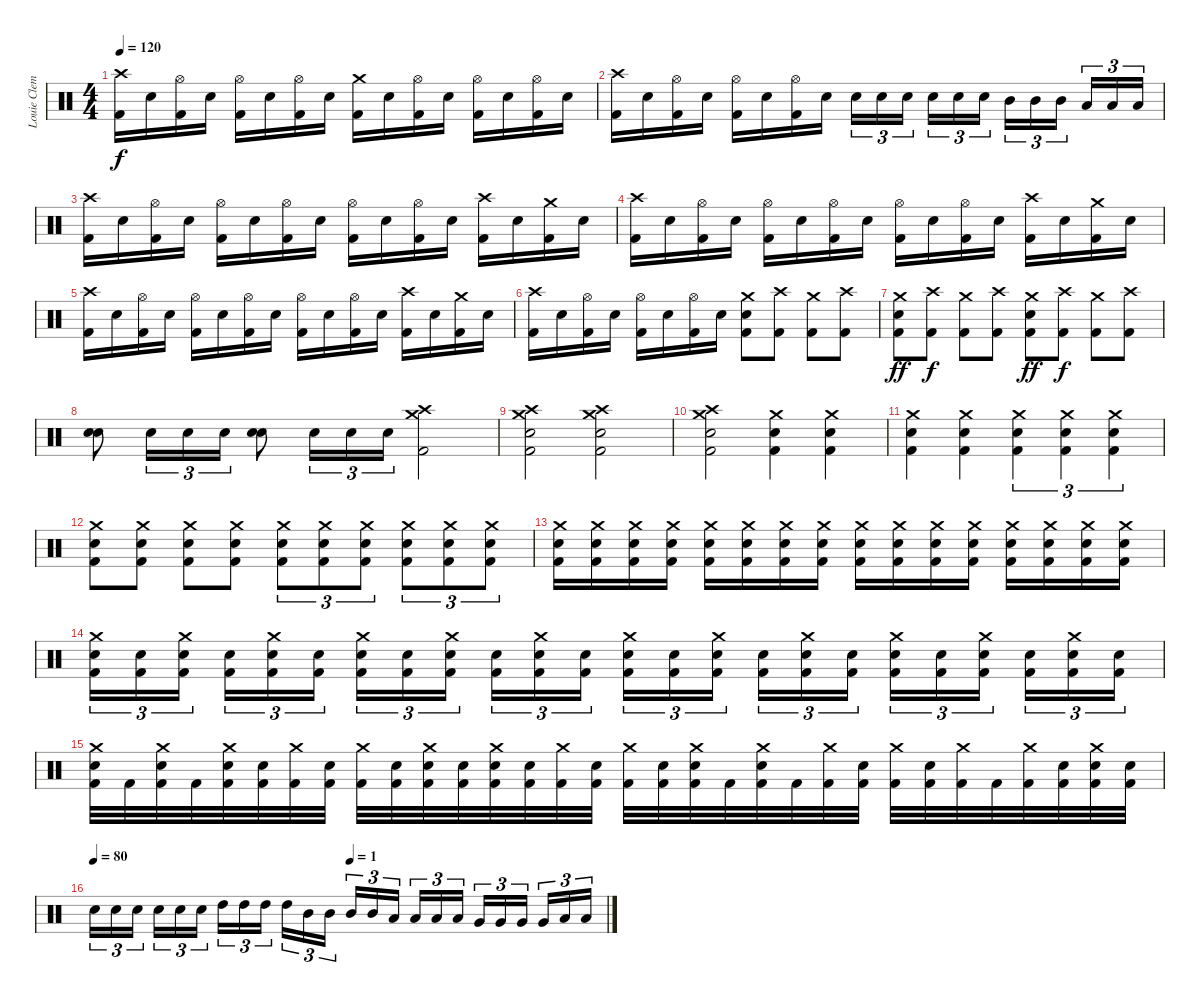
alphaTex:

\track ("Louie Clemente" "Louie Clem") {instrument percussion}
\staff {score}
\articulation defaults
\ts (4 4)
\tempo 120
\clef neutral
\ks c
("Crash high (hit)" "Kick (hit) 2").16{dy f} "Snare (hit) 2".16 ("Hi-Hat (open)" "Kick (hit) 2").16 "Snare (hit) 2".16 ("Hi-Hat (open)" "Kick (hit) 2").16 "Snare (hit) 2".16 ("Hi-Hat (open)" "Kick (hit) 2").16 "Snare (hit) 2".16 ("Crash medium (hit)" "Kick (hit) 2").16 "Snare (hit) 2".16 ("Hi-Hat (open)" "Kick (hit) 2").16 "Snare (hit) 2".16 ("Hi-Hat (open)" "Kick (hit) 2").16 "Snare (hit) 2".16 ("Hi-Hat (open)" "Kick (hit) 2").16 "Snare (hit) 2".16 |
("Crash high (hit)" "Kick (hit) 2").16 "Snare (hit) 2".16 ("Hi-Hat (open)" "Kick (hit) 2").16 "Snare (hit) 2".16 ("Hi-Hat (open)" "Kick (hit) 2").16 "Snare (hit) 2".16 ("Hi-Hat (open)" "Kick (hit) 2").16 "Snare (hit) 2".16 "Snare (hit) 2".16{tu (3 2)} "Snare (hit) 2".16{tu (3 2)} "Snare (hit) 2".16{tu (3 2)} "Snare (hit) 2".16{tu (3 2)} "Snare (hit) 2".16{tu (3 2)} "Snare (hit) 2".16{tu (3 2)} "Mid Tom (hit)".16{tu (3 2)} "Mid Tom (hit)".16{tu (3 2)} "Mid Tom (hit)".16{tu (3 2)} "Low Tom (hit)".16{tu (3 2)} "Low Tom (hit)".16{tu (3 2)} "Low Tom (hit)".16{tu (3 2)} |
("Crash high (hit)" "Kick (hit) 2").16 "Snare (hit) 2".16 ("Hi-Hat (open)" "Kick (hit) 2").16 "Snare (hit) 2".16 ("Hi-Hat (open)" "Kick (hit) 2").16 "Snare (hit) 2".16 ("Hi-Hat (open)" "Kick (hit) 2").16 "Snare (hit) 2".16 ("Hi-Hat (open)" "Kick (hit) 2").16 "Snare (hit) 2".16 ("Hi-Hat (open)" "Kick (hit) 2").16 "Snare (hit) 2".16 ("Crash high (hit)" "Kick (hit) 2").16 "Snare (hit) 2".16 ("Crash medium (hit)" "Kick (hit) 2").16 "Snare (hit) 2".16 |
("Crash high (hit)" "Kick (hit) 2").16 "Snare (hit) 2".16 ("Hi-Hat (open)" "Kick (hit) 2").16 "Snare (hit) 2".16 ("Hi-Hat (open)" "Kick (hit) 2").16 "Snare (hit) 2".16 ("Hi-Hat (open)" "Kick (hit) 2").16 "Snare (hit) 2".16 ("Hi-Hat (open)" "Kick (hit) 2").16 "Snare (hit) 2".16 ("Hi-Hat (open)" "Kick (hit) 2").16 "Snare (hit) 2".16 ("Crash high (hit)" "Kick (hit) 2").16 "Snare (hit) 2".16 ("Crash medium (hit)" "Kick (hit) 2").16 "Snare (hit) 2".16 |
("Crash high (hit)" "Kick (hit) 2").16 "Snare (hit) 2".16 ("Hi-Hat (open)" "Kick (hit) 2").16 "Snare (hit) 2".16 ("Hi-Hat (open)" "Kick (hit) 2").16 "Snare (hit) 2".16 ("Hi-Hat (open)" "Kick (hit) 2").16 "Snare (hit) 2".16 ("Hi-Hat (open)" "Kick (hit) 2").16 "Snare (hit) 2".16 ("Hi-Hat (open)" "Kick (hit) 2").16 "Snare (hit) 2".16 ("Crash high (hit)" "Kick (hit) 2").16 "Snare (hit) 2".16 ("Crash medium (hit)" "Kick (hit) 2").16 "Snare (hit) 2".16 |
("Crash high (hit)" "Kick (hit) 2").16 "Snare (hit) 2".16 ("Hi-Hat (open)" "Kick (hit) 2").16 "Snare (hit) 2".16 ("Hi-Hat (open)" "Kick (hit) 2").16 "Snare (hit) 2".16 ("Hi-Hat (open)" "Kick (hit) 2").16 "Snare (hit) 2".16 ("Snare (hit) 2" "Crash medium (hit)" "Kick (hit) 2").8 ("Crash high (hit)" "Kick (hit) 2").8 ("Crash medium (hit)" "Kick (hit) 2").8 ("Crash high (hit)" "Kick (hit) 2").8 |
("Snare (hit) 2" "Crash medium (hit)" "Kick (hit) 2").8{dy ff} ("Crash high (hit)" "Kick (hit) 2").8{dy f} ("Crash medium (hit)" "Kick (hit) 2").8 ("Crash high (hit)" "Kick (hit) 2").8 ("Snare (hit) 2" "Crash medium (hit)" "Kick (hit) 2").8{dy ff} ("Crash high (hit)" "Kick (hit) 2").8{dy f} ("Crash medium (hit)" "Kick (hit) 2").8 ("Crash high (hit)" "Kick (hit) 2").8 |
("Snare (hit) 2" "Snare (hit) 2").8 "Snare (hit) 2".16{tu (3 2)} "Snare (hit) 2".16{tu (3 2)} "Snare (hit) 2".16{tu (3 2)} ("Snare (hit) 2" "Snare (hit) 2").8 "Snare (hit) 2".16{tu (3 2)} "Snare (hit) 2".16{tu (3 2)} "Snare (hit) 2".16{tu (3 2)} ("Crash medium (hit)" "Crash high (hit)" "Kick (hit) 2").2 |
("Crash high (hit)" "Crash medium (hit)" "Snare (hit) 2" "Kick (hit) 2").2 ("Crash high (hit)" "Crash medium (hit)" "Snare (hit) 2" "Kick (hit) 2").2 |
("Crash high (hit)" "Crash medium (hit)" "Snare (hit) 2" "Kick (hit) 2").2 ("Crash medium (hit)" "Snare (hit) 2" "Kick (hit) 2").4 ("Crash medium (hit)" "Snare (hit) 2" "Kick (hit) 2").4 |
("Crash medium (hit)" "Snare (hit) 2" "Kick (hit) 2").4 ("Crash medium (hit)" "Snare (hit) 2" "Kick (hit) 2").4 ("Crash medium (hit)" "Snare (hit) 2" "Kick (hit) 2").4{tu (3 2)} ("Crash medium (hit)" "Snare (hit) 2" "Kick (hit) 2").4{tu (3 2)} ("Crash medium (hit)" "Snare (hit) 2" "Kick (hit) 2").4{tu (3 2)} |
("Crash medium (hit)" "Snare (hit) 2" "Kick (hit) 2").8 ("Crash medium (hit)" "Snare (hit) 2" "Kick (hit) 2").8 ("Crash medium (hit)" "Snare (hit) 2" "Kick (hit) 2").8 ("Crash medium (hit)" "Snare (hit) 2" "Kick (hit) 2").8 ("Crash medium (hit)" "Snare (hit) 2" "Kick (hit) 2").8{tu (3 2)} ("Crash medium (hit)" "Snare (hit) 2" "Kick (hit) 2").8{tu (3 2)} ("Crash medium (hit)" "Snare (hit) 2" "Kick (hit) 2").8{tu (3 2)} ("Crash medium (hit)" "Snare (hit) 2" "Kick (hit) 2").8{tu (3 2)} ("Crash medium (hit)" "Snare (hit) 2" "Kick (hit) 2").8{tu (3 2)} ("Crash medium (hit)" "Snare (hit) 2" "Kick (hit) 2").8{tu (3 2)} |
("Crash medium (hit)" "Snare (hit) 2" "Kick (hit) 2").16 ("Crash medium (hit)" "Snare (hit) 2" "Kick (hit) 2").16 ("Crash medium (hit)" "Snare (hit) 2" "Kick (hit) 2").16 ("Crash medium (hit)" "Snare (hit) 2" "Kick (hit) 2").16 ("Crash medium (hit)" "Snare (hit) 2" "Kick (hit) 2").16 ("Crash medium (hit)" "Snare (hit) 2" "Kick (hit) 2").16 ("Crash medium (hit)" "Snare (hit) 2" "Kick (hit) 2").16 ("Crash medium (hit)" "Snare (hit) 2" "Kick (hit) 2").16 ("Crash medium (hit)" "Snare (hit) 2" "Kick (hit) 2").16 ("Crash medium (hit)" "Snare (hit) 2" "Kick (hit) 2").16 ("Crash medium (hit)" "Snare (hit) 2" "Kick (hit) 2").16 ("Crash medium (hit)" "Snare (hit) 2" "Kick (hit) 2").16 ("Crash medium (hit)" "Snare (hit) 2" "Kick (hit) 2").16 ("Crash medium (hit)" "Snare (hit) 2" "Kick (hit) 2").16 ("Crash medium (hit)" "Snare (hit) 2" "Kick (hit) 2").16 ("Crash medium (hit)" "Snare (hit) 2" "Kick (hit) 2").16 |
("Crash medium (hit)" "Snare (hit) 2" "Kick (hit) 2").16{tu (3 2)} ("Snare (hit) 2" "Kick (hit) 2").16{tu (3 2)} ("Crash medium (hit)" "Snare (hit) 2" "Kick (hit) 2").16{tu (3 2)} ("Snare (hit) 2" "Kick (hit) 2").16{tu (3 2)} ("Crash medium (hit)" "Snare (hit) 2" "Kick (hit) 2").16{tu (3 2)} ("Snare (hit) 2" "Kick (hit) 2").16{tu (3 2)} ("Crash medium (hit)" "Snare (hit) 2" "Kick (hit) 2").16{tu (3 2)} ("Snare (hit) 2" "Kick (hit) 2").16{tu (3 2)} ("Crash medium (hit)" "Snare (hit) 2" "Kick (hit) 2").16{tu (3 2)} ("Snare (hit) 2" "Kick (hit) 2").16{tu (3 2)} ("Crash medium (hit)" "Snare (hit) 2" "Kick (hit) 2").16{tu (3 2)} ("Snare (hit) 2" "Kick (hit) 2").16{tu (3 2)} ("Crash medium (hit)" "Snare (hit) 2" "Kick (hit) 2").16{tu (3 2)} ("Snare (hit) 2" "Kick (hit) 2").16{tu (3 2)} ("Crash medium (hit)" "Snare (hit) 2" "Kick (hit) 2").16{tu (3 2)} ("Snare (hit) 2" "Kick (hit) 2").16{tu (3 2)} ("Crash medium (hit)" "Snare (hit) 2" "Kick (hit) 2").16{tu (3 2)} ("Snare (hit) 2" "Kick (hit) 2").16{tu (3 2)} ("Crash medium (hit)" "Snare (hit) 2" "Kick (hit) 2").16{tu (3 2)} ("Snare (hit) 2" "Kick (hit) 2").16{tu (3 2)} ("Crash medium (hit)" "Snare (hit) 2" "Kick (hit) 2").16{tu (3 2)} ("Snare (hit) 2" "Kick (hit) 2").16{tu (3 2)} ("Crash medium (hit)" "Snare (hit) 2" "Kick (hit) 2").16{tu (3 2)} ("Snare (hit) 2" "Kick (hit) 2").16{tu (3 2)} |
("Crash medium (hit)" "Snare (hit) 2" "Kick (hit) 2").32 "Kick (hit) 2".32 ("Crash medium (hit)" "Snare (hit) 2" "Kick (hit) 2").32 "Kick (hit) 2".32 ("Crash medium (hit)" "Snare (hit) 2" "Kick (hit) 2").32 ("Snare (hit) 2" "Kick (hit) 2").32 ("Crash medium (hit)" "Kick (hit) 2").32 ("Snare (hit) 2" "Kick (hit) 2").32 ("Crash medium (hit)" "Kick (hit) 2").32 ("Snare (hit) 2" "Kick (hit) 2").32 ("Crash medium (hit)" "Snare (hit) 2" "Kick (hit) 2").32 ("Snare (hit) 2" "Kick (hit) 2").32 ("Crash medium (hit)" "Snare (hit) 2" "Kick (hit) 2").32 ("Snare (hit) 2" "Kick (hit) 2").32 ("Crash medium (hit)" "Kick (hit) 2").32 ("Snare (hit) 2" "Kick (hit) 2").32 ("Crash medium (hit)" "Kick (hit) 2").32 ("Snare (hit) 2" "Kick (hit) 2").32 ("Crash medium (hit)" "Snare (hit) 2" "Kick (hit) 2").32 "Kick (hit) 2".32 ("Crash medium (hit)" "Snare (hit) 2" "Kick (hit) 2").32 "Kick (hit) 2".32 ("Crash medium (hit)" "Kick (hit) 2").32 ("Snare (hit) 2" "Kick (hit) 2").32 ("Crash medium (hit)" "Kick (hit) 2").32 ("Snare (hit) 2" "Kick (hit) 2").32 ("Crash medium (hit)" "Kick (hit) 2").32 "Kick (hit) 2".32 ("Crash medium (hit)" "Kick (hit) 2").32 ("Snare (hit) 2" "Kick (hit) 2").32 ("Crash medium (hit)" "Snare (hit) 2" "Kick (hit) 2").32 ("Snare (hit) 2" "Kick (hit) 2").32 |
\tempo 80
\tempo (1 0.5)
"Snare (hit) 2".16{tu (3 2)} "Snare (hit) 2".16{tu (3 2)} "Snare (hit) 2".16{tu (3 2)} "Snare (hit) 2".16{tu (3 2)} "Snare (hit) 2".16{tu (3 2)} "Snare (hit) 2".16{tu (3 2)} "High Tom (hit)".16{tu (3 2)} "High Tom (hit)".16{tu (3 2)} "High Tom (hit)".16{tu (3 2)} "High Tom (hit)".16{tu (3 2)} "Mid Tom (hit)".16{tu (3 2)} "Mid Tom (hit)".16{tu (3 2)} "Mid Tom (hit)".16{tu (3 2)} "Mid Tom (hit)".16{tu (3 2)} "Low Tom (hit)".16{tu (3 2)} "Low Tom (hit)".16{tu (3 2)} "Low Tom (hit)".16{tu (3 2)} "Low Tom (hit)".16{tu (3 2)} "Very Low Tom (hit)".16{tu (3 2)} "Very Low Tom (hit)".16{tu (3 2)} "Very Low Tom (hit)".16{tu (3 2)} "Very Low Tom (hit)".16{tu (3 2)} "Low Floor Tom (hit)".16{tu (3 2)} "Low Floor Tom (hit)".16{tu (3 2)}
